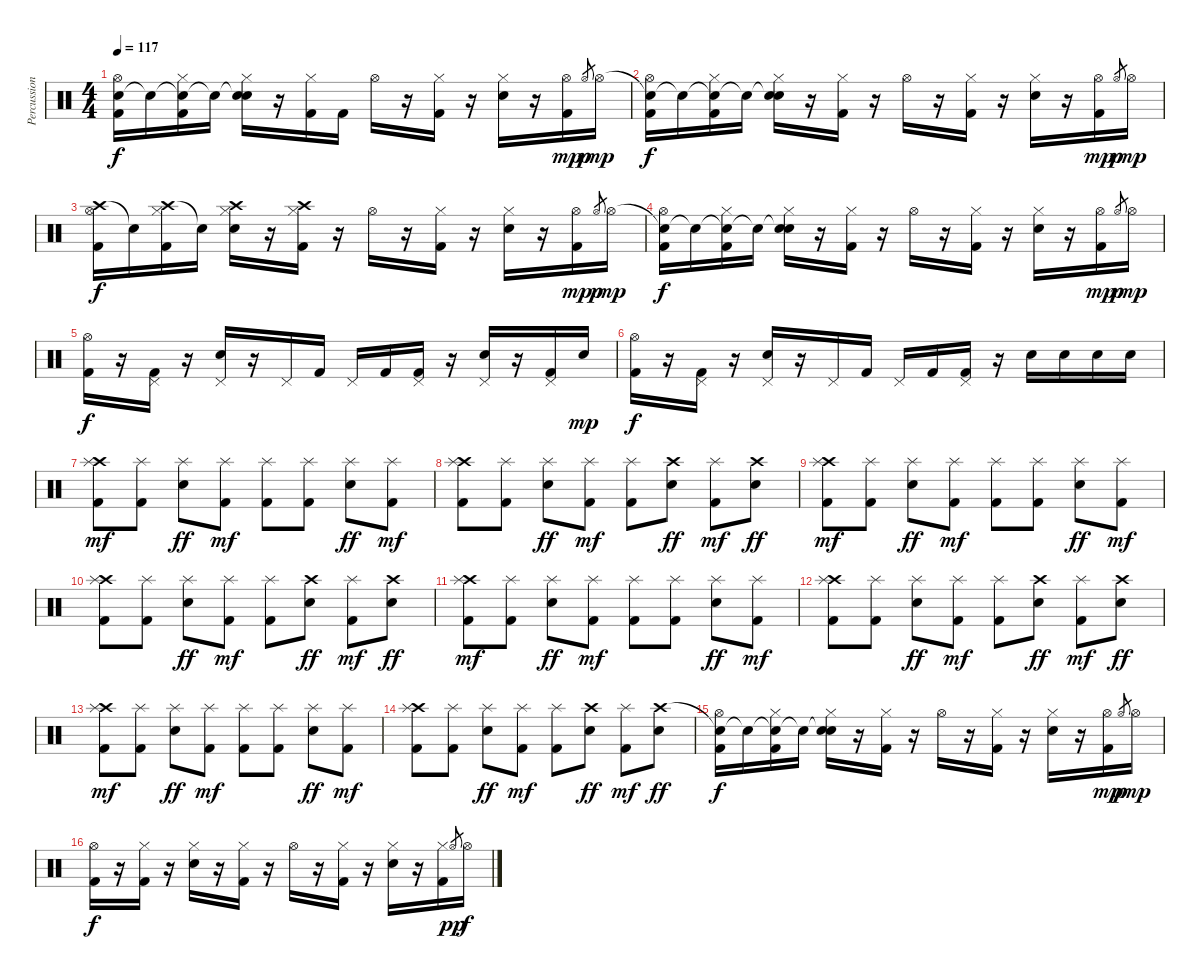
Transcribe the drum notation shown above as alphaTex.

\track ("Percussion" "Percussion") {instrument percussion}
\staff {score}
\articulation defaults
\ts (4 4)
\tempo 117
\clef neutral
\ks c
("Snare (hit)"{t} "Hi-Hat (open)" "Kick (hit) 2").16{dy f} "Snare (hit)"{t}.16 ("Snare (hit)"{t} "Hi-Hat (closed)" "Kick (hit) 2").16 "Snare (hit)"{t}.16 ("Snare (hit)"{t} "Hi-Hat (closed)" "Electric Snare (hit)").16 r.16 ("Hi-Hat (closed)" "Kick (hit) 2").16 "Kick (hit) 2".16 "Hi-Hat (open)".16 r.16 ("Hi-Hat (closed)" "Kick (hit) 2").16 r.16 ("Hi-Hat (closed)" "Electric Snare (hit)").16 r.16 ("Hi-Hat (open)" "Kick (hit) 2").16{dy mp} "Hi-Hat (open)".8{gr dy p} "Hi-Hat (open)".16{dy mp} |
("Snare (hit)"{t} "Hi-Hat (open)" "Kick (hit) 2").16{dy f} "Snare (hit)"{t}.16 ("Snare (hit)"{t} "Hi-Hat (closed)" "Kick (hit) 2").16 "Snare (hit)"{t}.16 ("Snare (hit)"{t} "Hi-Hat (closed)" "Electric Snare (hit)").16 r.16 ("Hi-Hat (closed)" "Kick (hit) 2").16 r.16 "Hi-Hat (open)".16 r.16 ("Hi-Hat (closed)" "Kick (hit) 2").16 r.16 ("Hi-Hat (closed)" "Electric Snare (hit)").16 r.16 ("Hi-Hat (open)" "Kick (hit) 2").16{dy mp} "Hi-Hat (open)".8{gr dy p} "Hi-Hat (open)".16{dy mp} |
("Crash high (hit)" "Hi-Hat (open)" "Kick (hit) 2").16{dy f} "Snare (hit)"{t}.16 ("Crash high (hit)" "Hi-Hat (closed)" "Kick (hit) 2").16 "Snare (hit)"{t}.16 ("Crash high (hit)" "Hi-Hat (closed)" "Electric Snare (hit)").16 r.16 ("Crash high (hit)" "Hi-Hat (closed)" "Kick (hit) 2").16 r.16 "Hi-Hat (open)".16 r.16 ("Hi-Hat (closed)" "Kick (hit) 2").16 r.16 ("Hi-Hat (closed)" "Electric Snare (hit)").16 r.16 ("Hi-Hat (open)" "Kick (hit) 2").16{dy mp} "Hi-Hat (open)".8{gr dy p} "Hi-Hat (open)".16{dy mp} |
("Snare (hit)"{t} "Hi-Hat (open)" "Kick (hit) 2").16{dy f} "Snare (hit)"{t}.16 ("Snare (hit)"{t} "Hi-Hat (closed)" "Kick (hit) 2").16 "Snare (hit)"{t}.16 ("Snare (hit)"{t} "Hi-Hat (closed)" "Electric Snare (hit)").16 r.16 ("Hi-Hat (closed)" "Kick (hit) 2").16 r.16 "Hi-Hat (open)".16 r.16 ("Hi-Hat (closed)" "Kick (hit) 2").16 r.16 ("Hi-Hat (closed)" "Electric Snare (hit)").16 r.16 ("Hi-Hat (open)" "Kick (hit) 2").16{dy mp} "Hi-Hat (open)".8{gr dy p} "Hi-Hat (open)".16{dy mp} |
("Hi-Hat (open)" "Kick (hit) 2").16{dy f} r.16 ("Pedal Hi-Hat (hit)" "Kick (hit) 2").16 r.16 ("Pedal Hi-Hat (hit)" "Electric Snare (hit)").16 r.16 "Pedal Hi-Hat (hit)".16 "Kick (hit) 2".16 "Pedal Hi-Hat (hit)".16 "Kick (hit) 2".16 ("Pedal Hi-Hat (hit)" "Kick (hit) 2").16 r.16 ("Pedal Hi-Hat (hit)" "Electric Snare (hit)").16 r.16 ("Pedal Hi-Hat (hit)" "Kick (hit) 2").16 "Electric Snare (hit)".16{dy mp} |
("Hi-Hat (open)" "Kick (hit) 2").16{dy f} r.16 ("Pedal Hi-Hat (hit)" "Kick (hit) 2").16 r.16 ("Pedal Hi-Hat (hit)" "Electric Snare (hit)").16 r.16 "Pedal Hi-Hat (hit)".16 "Kick (hit) 2".16 "Pedal Hi-Hat (hit)".16 "Kick (hit) 2".16 ("Pedal Hi-Hat (hit)" "Kick (hit) 2").16 r.16 "Electric Snare (hit)".16 "Electric Snare (hit)".16 "Electric Snare (hit)".16 "Electric Snare (hit)".16 |
("Crash high (hit)" "Splash (hit)" "Kick (hit) 2").8{dy mf} ("Splash (hit)" "Kick (hit) 2").8 ("Splash (hit)" "Electric Snare (hit)").8{dy ff} ("Splash (hit)" "Kick (hit) 2").8{dy mf} ("Splash (hit)" "Kick (hit) 2").8 ("Splash (hit)" "Kick (hit) 2").8 ("Splash (hit)" "Electric Snare (hit)").8{dy ff} ("Splash (hit)" "Kick (hit) 2").8{dy mf} |
("Crash high (hit)" "Splash (hit)" "Kick (hit) 2").8 ("Splash (hit)" "Kick (hit) 2").8 ("Splash (hit)" "Electric Snare (hit)").8{dy ff} ("Splash (hit)" "Kick (hit) 2").8{dy mf} ("Splash (hit)" "Kick (hit) 2").8 ("Crash high (hit)" "Electric Snare (hit)").8{dy ff} ("Splash (hit)" "Kick (hit) 2").8{dy mf} ("Crash high (hit)" "Electric Snare (hit)").8{dy ff} |
("Crash high (hit)" "Splash (hit)" "Kick (hit) 2").8{dy mf} ("Splash (hit)" "Kick (hit) 2").8 ("Splash (hit)" "Electric Snare (hit)").8{dy ff} ("Splash (hit)" "Kick (hit) 2").8{dy mf} ("Splash (hit)" "Kick (hit) 2").8 ("Splash (hit)" "Kick (hit) 2").8 ("Splash (hit)" "Electric Snare (hit)").8{dy ff} ("Splash (hit)" "Kick (hit) 2").8{dy mf} |
("Crash high (hit)" "Splash (hit)" "Kick (hit) 2").8 ("Splash (hit)" "Kick (hit) 2").8 ("Splash (hit)" "Electric Snare (hit)").8{dy ff} ("Splash (hit)" "Kick (hit) 2").8{dy mf} ("Splash (hit)" "Kick (hit) 2").8 ("Crash high (hit)" "Electric Snare (hit)").8{dy ff} ("Splash (hit)" "Kick (hit) 2").8{dy mf} ("Crash high (hit)" "Electric Snare (hit)").8{dy ff} |
("Crash high (hit)" "Splash (hit)" "Kick (hit) 2").8{dy mf} ("Splash (hit)" "Kick (hit) 2").8 ("Splash (hit)" "Electric Snare (hit)").8{dy ff} ("Splash (hit)" "Kick (hit) 2").8{dy mf} ("Splash (hit)" "Kick (hit) 2").8 ("Splash (hit)" "Kick (hit) 2").8 ("Splash (hit)" "Electric Snare (hit)").8{dy ff} ("Splash (hit)" "Kick (hit) 2").8{dy mf} |
("Crash high (hit)" "Splash (hit)" "Kick (hit) 2").8 ("Splash (hit)" "Kick (hit) 2").8 ("Splash (hit)" "Electric Snare (hit)").8{dy ff} ("Splash (hit)" "Kick (hit) 2").8{dy mf} ("Splash (hit)" "Kick (hit) 2").8 ("Crash high (hit)" "Electric Snare (hit)").8{dy ff} ("Splash (hit)" "Kick (hit) 2").8{dy mf} ("Crash high (hit)" "Electric Snare (hit)").8{dy ff} |
("Crash high (hit)" "Splash (hit)" "Kick (hit) 2").8{dy mf} ("Splash (hit)" "Kick (hit) 2").8 ("Splash (hit)" "Electric Snare (hit)").8{dy ff} ("Splash (hit)" "Kick (hit) 2").8{dy mf} ("Splash (hit)" "Kick (hit) 2").8 ("Splash (hit)" "Kick (hit) 2").8 ("Splash (hit)" "Electric Snare (hit)").8{dy ff} ("Splash (hit)" "Kick (hit) 2").8{dy mf} |
("Crash high (hit)" "Splash (hit)" "Kick (hit) 2").8 ("Splash (hit)" "Kick (hit) 2").8 ("Splash (hit)" "Electric Snare (hit)").8{dy ff} ("Splash (hit)" "Kick (hit) 2").8{dy mf} ("Splash (hit)" "Kick (hit) 2").8 ("Crash high (hit)" "Electric Snare (hit)").8{dy ff} ("Splash (hit)" "Kick (hit) 2").8{dy mf} ("Crash high (hit)" "Electric Snare (hit)").8{dy ff} |
("Snare (hit)"{t} "Hi-Hat (open)" "Kick (hit) 2").16{dy f} "Snare (hit)"{t}.16 ("Snare (hit)"{t} "Hi-Hat (closed)" "Kick (hit) 2").16 "Snare (hit)"{t}.16 ("Snare (hit)"{t} "Hi-Hat (closed)" "Electric Snare (hit)").16 r.16 ("Hi-Hat (closed)" "Kick (hit) 2").16 r.16 "Hi-Hat (open)".16 r.16 ("Hi-Hat (closed)" "Kick (hit) 2").16 r.16 ("Hi-Hat (closed)" "Electric Snare (hit)").16 r.16 ("Hi-Hat (open)" "Kick (hit) 2").16{dy mp} "Hi-Hat (open)".8{gr dy p} "Hi-Hat (open)".16{dy mp} |
("Hi-Hat (open)" "Kick (hit) 2").16{dy f} r.16 ("Hi-Hat (closed)" "Kick (hit) 2").16 r.16 ("Hi-Hat (closed)" "Electric Snare (hit)").16 r.16 ("Hi-Hat (closed)" "Kick (hit) 2").16 r.16 "Hi-Hat (open)".16 r.16 ("Hi-Hat (closed)" "Kick (hit) 2").16 r.16 ("Hi-Hat (closed)" "Electric Snare (hit)").16 r.16 ("Hi-Hat (closed)" "Kick (hit) 2").16 "Hi-Hat (open)".8{gr dy pp} "Hi-Hat (open)".16{dy f}
